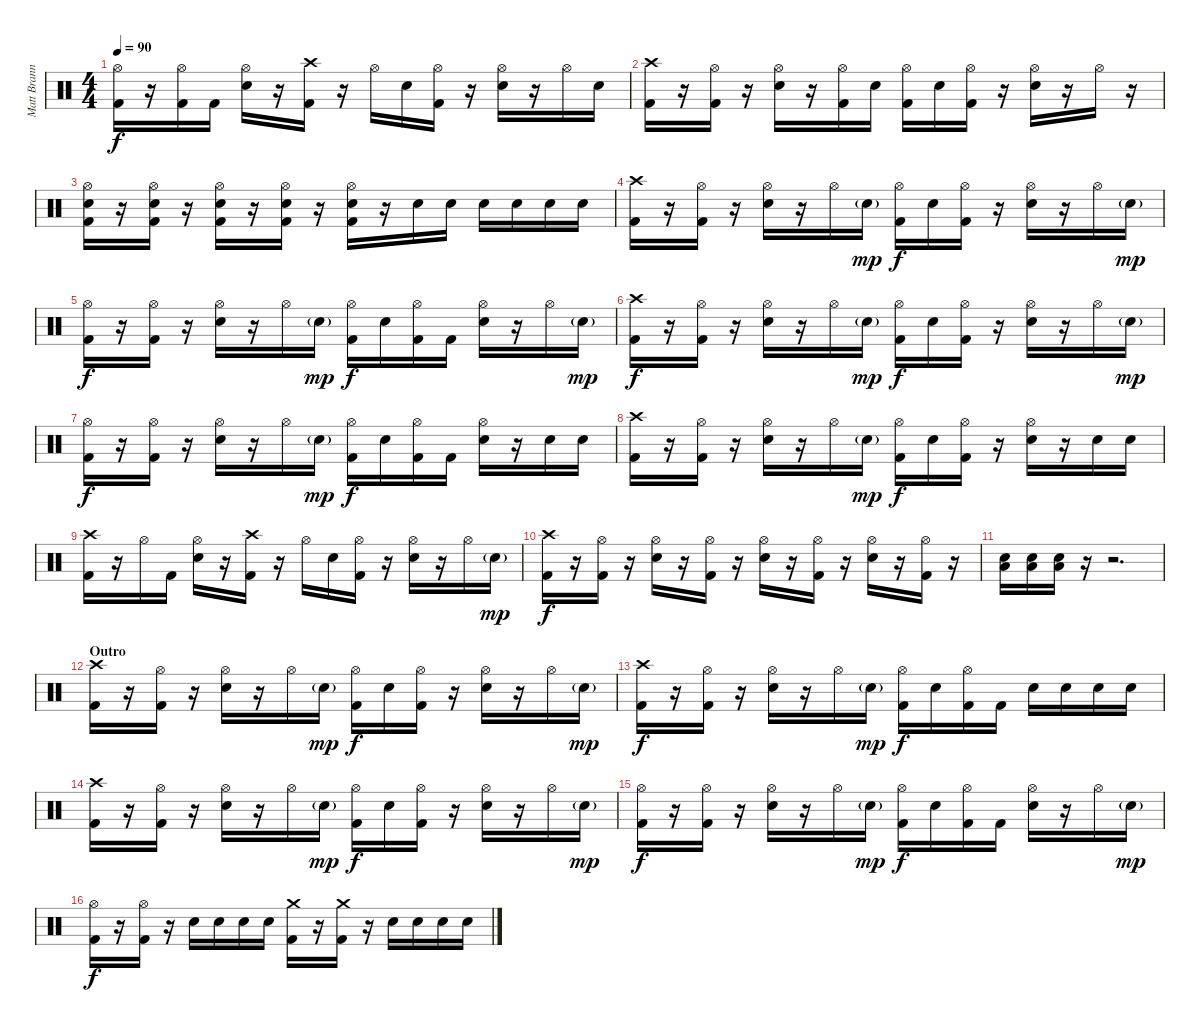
\track ("Matt Brann - Drums" "Matt Brann") {instrument percussion}
\staff {score}
\articulation defaults
\ts (4 4)
\tempo 90
\clef neutral
\ks c
("Hi-Hat (open)" "Kick (hit) 2").16{dy f} r.16 ("Hi-Hat (open)" "Kick (hit) 2").16 "Kick (hit) 2".16 ("Hi-Hat (open)" "Snare (hit) 2").16 r.16 ("Crash high (hit)" "Kick (hit) 2").16 r.16 "Hi-Hat (open)".16 "Snare (hit) 2".16 ("Hi-Hat (open)" "Kick (hit) 2").16 r.16 ("Hi-Hat (open)" "Snare (hit) 2").16 r.16 "Hi-Hat (open)".16 "Snare (hit) 2".16 |
("Crash high (hit)" "Kick (hit) 2").16 r.16 ("Hi-Hat (open)" "Kick (hit) 2").16 r.16 ("Hi-Hat (open)" "Snare (hit) 2").16 r.16 ("Hi-Hat (open)" "Kick (hit) 2").16 "Snare (hit) 2".16 ("Hi-Hat (open)" "Kick (hit) 2").16 "Snare (hit) 2".16 ("Hi-Hat (open)" "Kick (hit) 2").16 r.16 ("Hi-Hat (open)" "Snare (hit) 2").16 r.16 "Hi-Hat (open)".16 r.16 |
("Hi-Hat (open)" "Snare (hit) 2" "Kick (hit) 2").16 r.16 ("Hi-Hat (open)" "Snare (hit) 2" "Kick (hit) 2").16 r.16 ("Hi-Hat (open)" "Snare (hit) 2" "Kick (hit) 2").16 r.16 ("Hi-Hat (open)" "Snare (hit) 2" "Kick (hit) 2").16 r.16 ("Hi-Hat (open)" "Snare (hit) 2" "Kick (hit) 2").16 r.16 "Snare (hit) 2".16 "Snare (hit) 2".16 "Snare (hit) 2".16 "Snare (hit) 2".16 "Snare (hit) 2".16 "Snare (hit) 2".16 |
("Crash high (hit)" "Kick (hit) 2").16 r.16 ("Hi-Hat (open)" "Kick (hit) 2").16 r.16 ("Hi-Hat (open)" "Snare (hit) 2").16 r.16 "Hi-Hat (open)".16 "Snare (hit) 2"{g}.16{dy mp} ("Hi-Hat (open)" "Kick (hit) 2").16{dy f} "Snare (hit) 2".16 ("Hi-Hat (open)" "Kick (hit) 2").16 r.16 ("Hi-Hat (open)" "Snare (hit) 2").16 r.16 "Hi-Hat (open)".16 "Snare (hit) 2"{g}.16{dy mp} |
("Hi-Hat (open)" "Kick (hit) 2").16{dy f} r.16 ("Hi-Hat (open)" "Kick (hit) 2").16 r.16 ("Hi-Hat (open)" "Snare (hit) 2").16 r.16 "Hi-Hat (open)".16 "Snare (hit) 2"{g}.16{dy mp} ("Hi-Hat (open)" "Kick (hit) 2").16{dy f} "Snare (hit) 2".16 ("Hi-Hat (open)" "Kick (hit) 2").16 "Kick (hit) 2".16 ("Hi-Hat (open)" "Snare (hit) 2").16 r.16 "Hi-Hat (open)".16 "Snare (hit) 2"{g}.16{dy mp} |
("Crash high (hit)" "Kick (hit) 2").16{dy f} r.16 ("Hi-Hat (open)" "Kick (hit) 2").16 r.16 ("Hi-Hat (open)" "Snare (hit) 2").16 r.16 "Hi-Hat (open)".16 "Snare (hit) 2"{g}.16{dy mp} ("Hi-Hat (open)" "Kick (hit) 2").16{dy f} "Snare (hit) 2".16 ("Hi-Hat (open)" "Kick (hit) 2").16 r.16 ("Hi-Hat (open)" "Snare (hit) 2").16 r.16 "Hi-Hat (open)".16 "Snare (hit) 2"{g}.16{dy mp} |
("Hi-Hat (open)" "Kick (hit) 2").16{dy f} r.16 ("Hi-Hat (open)" "Kick (hit) 2").16 r.16 ("Hi-Hat (open)" "Snare (hit) 2").16 r.16 "Hi-Hat (open)".16 "Snare (hit) 2"{g}.16{dy mp} ("Hi-Hat (open)" "Kick (hit) 2").16{dy f} "Snare (hit) 2".16 ("Hi-Hat (open)" "Kick (hit) 2").16 "Kick (hit) 2".16 ("Hi-Hat (open)" "Snare (hit) 2").16 r.16 "Snare (hit) 2".16 "Snare (hit) 2".16 |
("Crash high (hit)" "Kick (hit) 2").16 r.16 ("Hi-Hat (open)" "Kick (hit) 2").16 r.16 ("Hi-Hat (open)" "Snare (hit) 2").16 r.16 "Hi-Hat (open)".16 "Snare (hit) 2"{g}.16{dy mp} ("Hi-Hat (open)" "Kick (hit) 2").16{dy f} "Snare (hit) 2".16 ("Hi-Hat (open)" "Kick (hit) 2").16 r.16 ("Hi-Hat (open)" "Snare (hit) 2").16 r.16 "Snare (hit) 2".16 "Snare (hit) 2".16 |
("Crash high (hit)" "Kick (hit) 2").16 r.16 "Hi-Hat (open)".16 "Kick (hit) 2".16 ("Hi-Hat (open)" "Snare (hit) 2").16 r.16 ("Crash high (hit)" "Kick (hit) 2").16 r.16 "Hi-Hat (open)".16 "Snare (hit) 2".16 ("Hi-Hat (open)" "Kick (hit) 2").16 r.16 ("Hi-Hat (open)" "Snare (hit) 2").16 r.16 "Hi-Hat (open)".16 "Snare (hit) 2"{g}.16{dy mp} |
("Crash high (hit)" "Kick (hit) 2").16{dy f} r.16 ("Hi-Hat (open)" "Kick (hit) 2").16 r.16 ("Hi-Hat (open)" "Snare (hit) 2").16 r.16 ("Hi-Hat (open)" "Kick (hit) 2").16 r.16 ("Hi-Hat (open)" "Snare (hit) 2").16 r.16 ("Hi-Hat (open)" "Kick (hit) 2").16 r.16 ("Hi-Hat (open)" "Snare (hit) 2").16 r.16 ("Hi-Hat (open)" "Kick (hit) 2").16 r.16 |
("Snare (hit) 2" "Low Floor Tom (hit)").16 ("Snare (hit) 2" "Low Floor Tom (hit)").16 ("Snare (hit) 2" "Low Floor Tom (hit)").16 r.16 r.2{d} |
\section ("" "Outro")
("Crash high (hit)" "Kick (hit) 2").16 r.16 ("Hi-Hat (open)" "Kick (hit) 2").16 r.16 ("Hi-Hat (open)" "Snare (hit) 2").16 r.16 "Hi-Hat (open)".16 "Snare (hit) 2"{g}.16{dy mp} ("Hi-Hat (open)" "Kick (hit) 2").16{dy f} "Snare (hit) 2".16 ("Hi-Hat (open)" "Kick (hit) 2").16 r.16 ("Hi-Hat (open)" "Snare (hit) 2").16 r.16 "Hi-Hat (open)".16 "Snare (hit) 2"{g}.16{dy mp} |
("Crash high (hit)" "Kick (hit) 2").16{dy f} r.16 ("Hi-Hat (open)" "Kick (hit) 2").16 r.16 ("Hi-Hat (open)" "Snare (hit) 2").16 r.16 "Hi-Hat (open)".16 "Snare (hit) 2"{g}.16{dy mp} ("Hi-Hat (open)" "Kick (hit) 2").16{dy f} "Snare (hit) 2".16 ("Hi-Hat (open)" "Kick (hit) 2").16 "Kick (hit) 2".16 "Snare (hit) 2".16 "Snare (hit) 2".16 "Snare (hit) 2".16 "Snare (hit) 2".16 |
("Crash high (hit)" "Kick (hit) 2").16 r.16 ("Hi-Hat (open)" "Kick (hit) 2").16 r.16 ("Hi-Hat (open)" "Snare (hit) 2").16 r.16 "Hi-Hat (open)".16 "Snare (hit) 2"{g}.16{dy mp} ("Hi-Hat (open)" "Kick (hit) 2").16{dy f} "Snare (hit) 2".16 ("Hi-Hat (open)" "Kick (hit) 2").16 r.16 ("Hi-Hat (open)" "Snare (hit) 2").16 r.16 "Hi-Hat (open)".16 "Snare (hit) 2"{g}.16{dy mp} |
("Hi-Hat (open)" "Kick (hit) 2").16{dy f} r.16 ("Hi-Hat (open)" "Kick (hit) 2").16 r.16 ("Hi-Hat (open)" "Snare (hit) 2").16 r.16 "Hi-Hat (open)".16 "Snare (hit) 2"{g}.16{dy mp} ("Hi-Hat (open)" "Kick (hit) 2").16{dy f} "Snare (hit) 2".16 ("Hi-Hat (open)" "Kick (hit) 2").16 "Kick (hit) 2".16 ("Hi-Hat (open)" "Snare (hit) 2").16 r.16 "Hi-Hat (open)".16 "Snare (hit) 2"{g}.16{dy mp} |
("Hi-Hat (open)" "Kick (hit) 2").16{dy f} r.16 ("Hi-Hat (open)" "Kick (hit) 2").16 r.16 "Snare (hit) 2".16 "Snare (hit) 2".16 "Snare (hit) 2".16 "Snare (hit) 2".16 ("Crash medium (hit)" "Kick (hit) 2").16 r.16 ("Crash medium (hit)" "Kick (hit) 2").16 r.16 "Snare (hit) 2".16 "Snare (hit) 2".16 "Snare (hit) 2".16 "Snare (hit) 2".16
